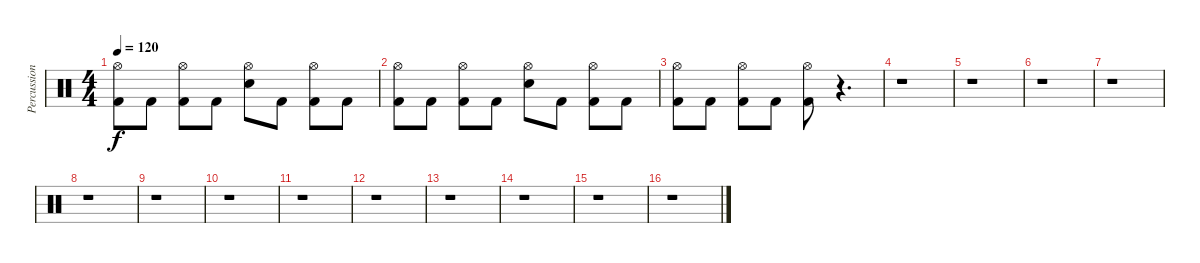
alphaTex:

\track ("Percussion" "Percussion") {solo instrument percussion}
\staff {score}
\articulation defaults
\ts (4 4)
\tempo 120
\clef neutral
\ks c
("Hi-Hat (open)" "Kick (hit) 2").8{dy f} "Kick (hit) 2".8 ("Hi-Hat (open)" "Kick (hit) 2").8 "Kick (hit) 2".8 ("Hi-Hat (open)" "Snare (hit) 2").8 "Kick (hit) 2".8 ("Hi-Hat (open)" "Kick (hit) 2").8 "Kick (hit) 2".8 |
("Hi-Hat (open)" "Kick (hit) 2").8 "Kick (hit) 2".8 ("Hi-Hat (open)" "Kick (hit) 2").8 "Kick (hit) 2".8 ("Hi-Hat (open)" "Snare (hit) 2").8 "Kick (hit) 2".8 ("Hi-Hat (open)" "Kick (hit) 2").8 "Kick (hit) 2".8 |
("Hi-Hat (open)" "Kick (hit) 2").8 "Kick (hit) 2".8 ("Hi-Hat (open)" "Kick (hit) 2").8 "Kick (hit) 2".8 ("Hi-Hat (open)" "Kick (hit) 2").8 r.4{d} |
r.1 |
r.1 |
r.1 |
r.1 |
r.1 |
r.1 |
r.1 |
r.1 |
r.1 |
r.1 |
r.1 |
r.1 |
r.1
